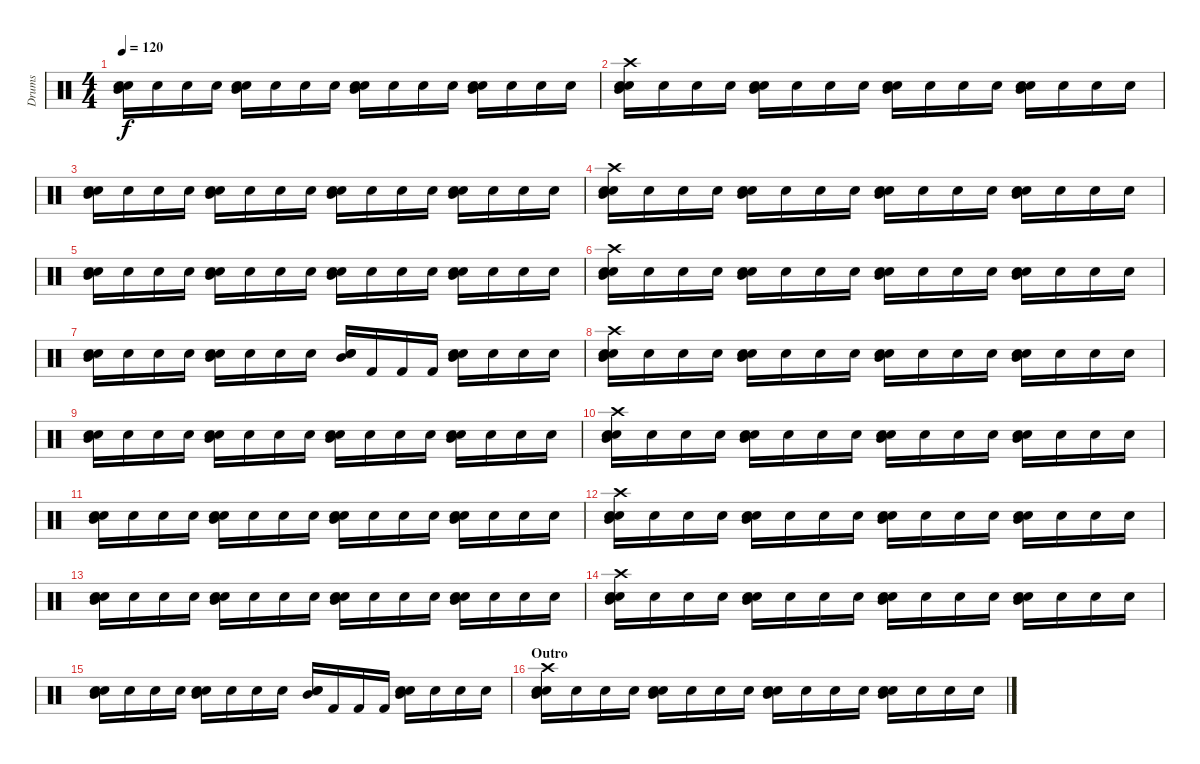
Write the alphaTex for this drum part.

\track ("Drums" "Drums") {instrument percussion}
\staff {score}
\articulation defaults
\ts (4 4)
\tempo 120
\clef neutral
\ks c
("Electric Snare (hit)" "Snare (hit) 2" "Mid Tom (hit)").16{dy f} "Snare (hit) 2".16 "Snare (hit) 2".16 "Snare (hit) 2".16 ("Mid Tom (hit)" "Snare (hit) 2" "Electric Snare (hit)").16 "Snare (hit) 2".16 "Snare (hit) 2".16 "Snare (hit) 2".16 ("Mid Tom (hit)" "Snare (hit) 2" "Electric Snare (hit)").16 "Snare (hit) 2".16 "Snare (hit) 2".16 "Snare (hit) 2".16 ("Mid Tom (hit)" "Snare (hit) 2" "Electric Snare (hit)").16 "Snare (hit) 2".16 "Snare (hit) 2".16 "Snare (hit) 2".16 |
("Electric Snare (hit)" "Snare (hit) 2" "Mid Tom (hit)" "Crash high (hit)").16 "Snare (hit) 2".16 "Snare (hit) 2".16 "Snare (hit) 2".16 ("Mid Tom (hit)" "Snare (hit) 2" "Electric Snare (hit)").16 "Snare (hit) 2".16 "Snare (hit) 2".16 "Snare (hit) 2".16 ("Mid Tom (hit)" "Snare (hit) 2" "Electric Snare (hit)").16 "Snare (hit) 2".16 "Snare (hit) 2".16 "Snare (hit) 2".16 ("Mid Tom (hit)" "Snare (hit) 2" "Electric Snare (hit)").16 "Snare (hit) 2".16 "Snare (hit) 2".16 "Snare (hit) 2".16 |
("Electric Snare (hit)" "Snare (hit) 2" "Mid Tom (hit)").16 "Snare (hit) 2".16 "Snare (hit) 2".16 "Snare (hit) 2".16 ("Mid Tom (hit)" "Snare (hit) 2" "Electric Snare (hit)").16 "Snare (hit) 2".16 "Snare (hit) 2".16 "Snare (hit) 2".16 ("Mid Tom (hit)" "Snare (hit) 2" "Electric Snare (hit)").16 "Snare (hit) 2".16 "Snare (hit) 2".16 "Snare (hit) 2".16 ("Mid Tom (hit)" "Snare (hit) 2" "Electric Snare (hit)").16 "Snare (hit) 2".16 "Snare (hit) 2".16 "Snare (hit) 2".16 |
("Electric Snare (hit)" "Snare (hit) 2" "Mid Tom (hit)" "Crash high (hit)").16 "Snare (hit) 2".16 "Snare (hit) 2".16 "Snare (hit) 2".16 ("Mid Tom (hit)" "Snare (hit) 2" "Electric Snare (hit)").16 "Snare (hit) 2".16 "Snare (hit) 2".16 "Snare (hit) 2".16 ("Mid Tom (hit)" "Snare (hit) 2" "Electric Snare (hit)").16 "Snare (hit) 2".16 "Snare (hit) 2".16 "Snare (hit) 2".16 ("Mid Tom (hit)" "Snare (hit) 2" "Electric Snare (hit)").16 "Snare (hit) 2".16 "Snare (hit) 2".16 "Snare (hit) 2".16 |
("Electric Snare (hit)" "Snare (hit) 2" "Mid Tom (hit)").16 "Snare (hit) 2".16 "Snare (hit) 2".16 "Snare (hit) 2".16 ("Mid Tom (hit)" "Snare (hit) 2" "Electric Snare (hit)").16 "Snare (hit) 2".16 "Snare (hit) 2".16 "Snare (hit) 2".16 ("Mid Tom (hit)" "Snare (hit) 2" "Electric Snare (hit)").16 "Snare (hit) 2".16 "Snare (hit) 2".16 "Snare (hit) 2".16 ("Mid Tom (hit)" "Snare (hit) 2" "Electric Snare (hit)").16 "Snare (hit) 2".16 "Snare (hit) 2".16 "Snare (hit) 2".16 |
("Electric Snare (hit)" "Snare (hit) 2" "Mid Tom (hit)" "Crash high (hit)").16 "Snare (hit) 2".16 "Snare (hit) 2".16 "Snare (hit) 2".16 ("Mid Tom (hit)" "Snare (hit) 2" "Electric Snare (hit)").16 "Snare (hit) 2".16 "Snare (hit) 2".16 "Snare (hit) 2".16 ("Mid Tom (hit)" "Snare (hit) 2" "Electric Snare (hit)").16 "Snare (hit) 2".16 "Snare (hit) 2".16 "Snare (hit) 2".16 ("Mid Tom (hit)" "Snare (hit) 2" "Electric Snare (hit)").16 "Snare (hit) 2".16 "Snare (hit) 2".16 "Snare (hit) 2".16 |
("Electric Snare (hit)" "Snare (hit) 2" "Mid Tom (hit)").16 "Snare (hit) 2".16 "Snare (hit) 2".16 "Snare (hit) 2".16 ("Mid Tom (hit)" "Snare (hit) 2" "Electric Snare (hit)").16 "Snare (hit) 2".16 "Snare (hit) 2".16 "Snare (hit) 2".16 ("Mid Tom (hit)" "Snare (hit) 2" "Electric Snare (hit)").16 "Kick (hit) 2".16 "Kick (hit) 2".16 "Kick (hit) 2".16 ("Mid Tom (hit)" "Snare (hit) 2" "Electric Snare (hit)").16 "Electric Snare (hit)".16 "Electric Snare (hit)".16 "Electric Snare (hit)".16 |
("Electric Snare (hit)" "Snare (hit) 2" "Mid Tom (hit)" "Crash high (hit)").16 "Snare (hit) 2".16 "Snare (hit) 2".16 "Snare (hit) 2".16 ("Mid Tom (hit)" "Snare (hit) 2" "Electric Snare (hit)").16 "Snare (hit) 2".16 "Snare (hit) 2".16 "Snare (hit) 2".16 ("Mid Tom (hit)" "Snare (hit) 2" "Electric Snare (hit)").16 "Snare (hit) 2".16 "Snare (hit) 2".16 "Snare (hit) 2".16 ("Mid Tom (hit)" "Snare (hit) 2" "Electric Snare (hit)").16 "Snare (hit) 2".16 "Snare (hit) 2".16 "Snare (hit) 2".16 |
("Electric Snare (hit)" "Snare (hit) 2" "Mid Tom (hit)").16 "Snare (hit) 2".16 "Snare (hit) 2".16 "Snare (hit) 2".16 ("Mid Tom (hit)" "Snare (hit) 2" "Electric Snare (hit)").16 "Snare (hit) 2".16 "Snare (hit) 2".16 "Snare (hit) 2".16 ("Mid Tom (hit)" "Snare (hit) 2" "Electric Snare (hit)").16 "Snare (hit) 2".16 "Snare (hit) 2".16 "Snare (hit) 2".16 ("Mid Tom (hit)" "Snare (hit) 2" "Electric Snare (hit)").16 "Snare (hit) 2".16 "Snare (hit) 2".16 "Snare (hit) 2".16 |
("Electric Snare (hit)" "Snare (hit) 2" "Mid Tom (hit)" "Crash high (hit)").16 "Snare (hit) 2".16 "Snare (hit) 2".16 "Snare (hit) 2".16 ("Mid Tom (hit)" "Snare (hit) 2" "Electric Snare (hit)").16 "Snare (hit) 2".16 "Snare (hit) 2".16 "Snare (hit) 2".16 ("Mid Tom (hit)" "Snare (hit) 2" "Electric Snare (hit)").16 "Snare (hit) 2".16 "Snare (hit) 2".16 "Snare (hit) 2".16 ("Mid Tom (hit)" "Snare (hit) 2" "Electric Snare (hit)").16 "Snare (hit) 2".16 "Snare (hit) 2".16 "Snare (hit) 2".16 |
("Electric Snare (hit)" "Snare (hit) 2" "Mid Tom (hit)").16 "Snare (hit) 2".16 "Snare (hit) 2".16 "Snare (hit) 2".16 ("Mid Tom (hit)" "Snare (hit) 2" "Electric Snare (hit)").16 "Snare (hit) 2".16 "Snare (hit) 2".16 "Snare (hit) 2".16 ("Mid Tom (hit)" "Snare (hit) 2" "Electric Snare (hit)").16 "Snare (hit) 2".16 "Snare (hit) 2".16 "Snare (hit) 2".16 ("Mid Tom (hit)" "Snare (hit) 2" "Electric Snare (hit)").16 "Snare (hit) 2".16 "Snare (hit) 2".16 "Snare (hit) 2".16 |
("Electric Snare (hit)" "Snare (hit) 2" "Mid Tom (hit)" "Crash high (hit)").16 "Snare (hit) 2".16 "Snare (hit) 2".16 "Snare (hit) 2".16 ("Mid Tom (hit)" "Snare (hit) 2" "Electric Snare (hit)").16 "Snare (hit) 2".16 "Snare (hit) 2".16 "Snare (hit) 2".16 ("Mid Tom (hit)" "Snare (hit) 2" "Electric Snare (hit)").16 "Snare (hit) 2".16 "Snare (hit) 2".16 "Snare (hit) 2".16 ("Mid Tom (hit)" "Snare (hit) 2" "Electric Snare (hit)").16 "Snare (hit) 2".16 "Snare (hit) 2".16 "Snare (hit) 2".16 |
("Electric Snare (hit)" "Snare (hit) 2" "Mid Tom (hit)").16 "Snare (hit) 2".16 "Snare (hit) 2".16 "Snare (hit) 2".16 ("Mid Tom (hit)" "Snare (hit) 2" "Electric Snare (hit)").16 "Snare (hit) 2".16 "Snare (hit) 2".16 "Snare (hit) 2".16 ("Mid Tom (hit)" "Snare (hit) 2" "Electric Snare (hit)").16 "Snare (hit) 2".16 "Snare (hit) 2".16 "Snare (hit) 2".16 ("Mid Tom (hit)" "Snare (hit) 2" "Electric Snare (hit)").16 "Snare (hit) 2".16 "Snare (hit) 2".16 "Snare (hit) 2".16 |
("Electric Snare (hit)" "Snare (hit) 2" "Mid Tom (hit)" "Crash high (hit)").16 "Snare (hit) 2".16 "Snare (hit) 2".16 "Snare (hit) 2".16 ("Mid Tom (hit)" "Snare (hit) 2" "Electric Snare (hit)").16 "Snare (hit) 2".16 "Snare (hit) 2".16 "Snare (hit) 2".16 ("Mid Tom (hit)" "Snare (hit) 2" "Electric Snare (hit)").16 "Snare (hit) 2".16 "Snare (hit) 2".16 "Snare (hit) 2".16 ("Mid Tom (hit)" "Snare (hit) 2" "Electric Snare (hit)").16 "Snare (hit) 2".16 "Snare (hit) 2".16 "Snare (hit) 2".16 |
("Electric Snare (hit)" "Snare (hit) 2" "Mid Tom (hit)").16 "Snare (hit) 2".16 "Snare (hit) 2".16 "Snare (hit) 2".16 ("Mid Tom (hit)" "Snare (hit) 2" "Electric Snare (hit)").16 "Snare (hit) 2".16 "Snare (hit) 2".16 "Snare (hit) 2".16 ("Mid Tom (hit)" "Snare (hit) 2" "Electric Snare (hit)").16 "Kick (hit) 2".16 "Kick (hit) 2".16 "Kick (hit) 2".16 ("Mid Tom (hit)" "Snare (hit) 2" "Electric Snare (hit)").16 "Electric Snare (hit)".16 "Electric Snare (hit)".16 "Electric Snare (hit)".16 |
\section ("" "Outro")
("Electric Snare (hit)" "Snare (hit) 2" "Mid Tom (hit)" "Crash high (hit)").16 "Snare (hit) 2".16 "Snare (hit) 2".16 "Snare (hit) 2".16 ("Mid Tom (hit)" "Snare (hit) 2" "Electric Snare (hit)").16 "Snare (hit) 2".16 "Snare (hit) 2".16 "Snare (hit) 2".16 ("Mid Tom (hit)" "Snare (hit) 2" "Electric Snare (hit)").16 "Snare (hit) 2".16 "Snare (hit) 2".16 "Snare (hit) 2".16 ("Mid Tom (hit)" "Snare (hit) 2" "Electric Snare (hit)").16 "Snare (hit) 2".16 "Snare (hit) 2".16 "Snare (hit) 2".16
